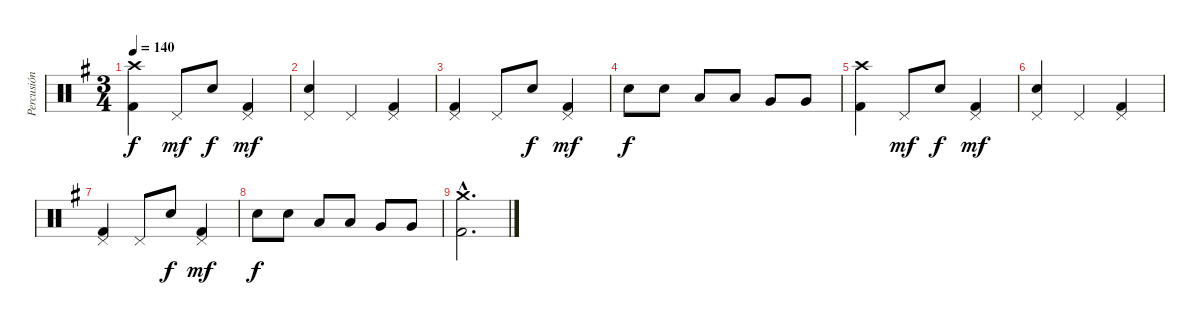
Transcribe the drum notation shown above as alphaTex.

\track ("Percusión" "Percusión") {instrument percussion}
\staff {score}
\articulation defaults
\ts (3 4)
\tempo 140
\clef neutral
\ks g
("Crash high (hit)" "Kick (hit) 2").4{dy f} "Pedal Hi-Hat (hit)".8{dy mf} "Snare (hit) 2".8{dy f} ("Pedal Hi-Hat (hit)" "Kick (hit) 2").4{dy mf} |
("Pedal Hi-Hat (hit)" "Snare (hit) 2").4 "Pedal Hi-Hat (hit)".4 ("Pedal Hi-Hat (hit)" "Kick (hit) 2").4 |
("Pedal Hi-Hat (hit)" "Kick (hit) 2").4 "Pedal Hi-Hat (hit)".8 "Snare (hit) 2".8{dy f} ("Pedal Hi-Hat (hit)" "Kick (hit) 2").4{dy mf} |
"Snare (hit) 2".8{dy f} "Snare (hit) 2".8 "Low Tom (hit)".8 "Low Tom (hit)".8 "Very Low Tom (hit)".8 "Very Low Tom (hit)".8 |
("Crash high (hit)" "Kick (hit) 2").4 "Pedal Hi-Hat (hit)".8{dy mf} "Snare (hit) 2".8{dy f} ("Pedal Hi-Hat (hit)" "Kick (hit) 2").4{dy mf} |
("Pedal Hi-Hat (hit)" "Snare (hit) 2").4 "Pedal Hi-Hat (hit)".4 ("Pedal Hi-Hat (hit)" "Kick (hit) 2").4 |
("Pedal Hi-Hat (hit)" "Kick (hit) 2").4 "Pedal Hi-Hat (hit)".8 "Snare (hit) 2".8{dy f} ("Pedal Hi-Hat (hit)" "Kick (hit) 2").4{dy mf} |
"Snare (hit) 2".8{dy f} "Snare (hit) 2".8 "Low Tom (hit)".8 "Low Tom (hit)".8 "Very Low Tom (hit)".8 "Very Low Tom (hit)".8 |
("Crash medium (hit)"{hac} "Kick (hit) 2"{hac}).2{d}
